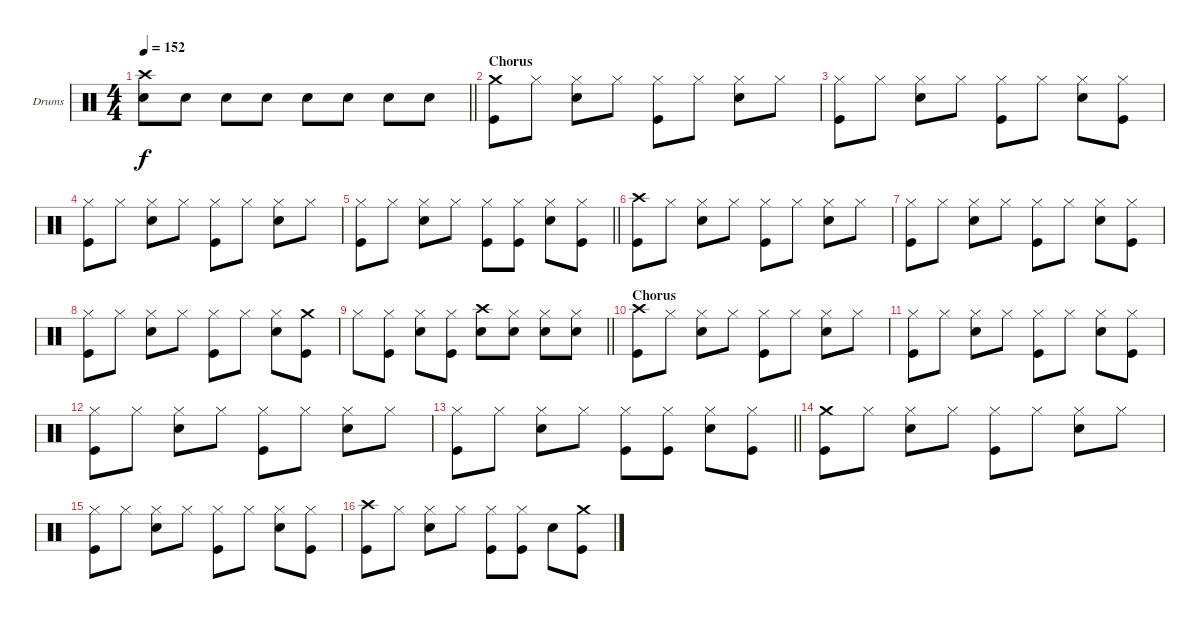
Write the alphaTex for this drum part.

\bracketExtendMode groupsimilarinstruments
\firstSystemTrackNameOrientation horizontal
\otherSystemsTrackNameOrientation horizontal
\track ("Drumkit" "Drums") {instrument percussion}
\staff {score}
\articulation defaults
\ts (4 4)
\tempo 152
\clef neutral
\barLineRight lightlight
\ks c
("Crash high (hit)" "Snare (hit) 2").8{dy f} "Snare (hit) 2".8 "Snare (hit) 2".8 "Snare (hit) 2".8 "Snare (hit) 2".8 "Snare (hit) 2".8 "Snare (hit) 2".8 "Snare (hit) 2".8 |
\section ("" "Chorus")
("Crash medium (hit)" "Kick (hit)").8 "Hi-Hat (closed)".8 ("Hi-Hat (closed)" "Snare (hit) 2").8 "Hi-Hat (closed)".8 ("Hi-Hat (closed)" "Kick (hit)").8 "Hi-Hat (closed)".8 ("Hi-Hat (closed)" "Snare (hit) 2").8 "Hi-Hat (closed)".8 |
("Hi-Hat (closed)" "Kick (hit)").8 "Hi-Hat (closed)".8 ("Hi-Hat (closed)" "Snare (hit) 2").8 "Hi-Hat (closed)".8 ("Hi-Hat (closed)" "Kick (hit)").8 "Hi-Hat (closed)".8 ("Hi-Hat (closed)" "Snare (hit) 2").8 ("Hi-Hat (closed)" "Kick (hit)").8 |
("Hi-Hat (closed)" "Kick (hit)").8 "Hi-Hat (closed)".8 ("Hi-Hat (closed)" "Snare (hit) 2").8 "Hi-Hat (closed)".8 ("Hi-Hat (closed)" "Kick (hit)").8 "Hi-Hat (closed)".8 ("Hi-Hat (closed)" "Snare (hit) 2").8 "Hi-Hat (closed)".8 |
\barLineRight lightlight
("Hi-Hat (closed)" "Kick (hit)").8 "Hi-Hat (closed)".8 ("Hi-Hat (closed)" "Snare (hit) 2").8 "Hi-Hat (closed)".8 ("Hi-Hat (closed)" "Kick (hit)").8 ("Hi-Hat (closed)" "Kick (hit)").8 ("Hi-Hat (closed)" "Snare (hit) 2").8 ("Hi-Hat (closed)" "Kick (hit)").8 |
("Crash high (hit)" "Kick (hit)").8 "Hi-Hat (closed)".8 ("Hi-Hat (closed)" "Snare (hit) 2").8 "Hi-Hat (closed)".8 ("Hi-Hat (closed)" "Kick (hit)").8 "Hi-Hat (closed)".8 ("Hi-Hat (closed)" "Snare (hit) 2").8 "Hi-Hat (closed)".8 |
("Hi-Hat (closed)" "Kick (hit)").8 "Hi-Hat (closed)".8 ("Hi-Hat (closed)" "Snare (hit) 2").8 "Hi-Hat (closed)".8 ("Hi-Hat (closed)" "Kick (hit)").8 "Hi-Hat (closed)".8 ("Hi-Hat (closed)" "Snare (hit) 2").8 ("Hi-Hat (closed)" "Kick (hit)").8 |
("Hi-Hat (closed)" "Kick (hit)").8 "Hi-Hat (closed)".8 ("Hi-Hat (closed)" "Snare (hit) 2").8 "Hi-Hat (closed)".8 ("Hi-Hat (closed)" "Kick (hit)").8 "Hi-Hat (closed)".8 ("Hi-Hat (closed)" "Snare (hit) 2").8 ("Crash medium (hit)" "Kick (hit)").8 |
\barLineRight lightlight "Hi-Hat (closed)".8
("Hi-Hat (closed)" "Kick (hit)").8 ("Hi-Hat (closed)" "Snare (hit) 2").8 ("Hi-Hat (closed)" "Kick (hit)").8 ("Crash high (hit)" "Snare (hit) 2").8 ("Hi-Hat (closed)" "Snare (hit) 2").8 ("Hi-Hat (closed)" "Snare (hit) 2").8 ("Hi-Hat (closed)" "Snare (hit) 2").8 |
\section ("" "Chorus")
("Crash high (hit)" "Kick (hit)").8 "Hi-Hat (closed)".8 ("Hi-Hat (closed)" "Snare (hit) 2").8 "Hi-Hat (closed)".8 ("Hi-Hat (closed)" "Kick (hit)").8 "Hi-Hat (closed)".8 ("Hi-Hat (closed)" "Snare (hit) 2").8 "Hi-Hat (closed)".8 |
("Hi-Hat (closed)" "Kick (hit)").8 "Hi-Hat (closed)".8 ("Hi-Hat (closed)" "Snare (hit) 2").8 "Hi-Hat (closed)".8 ("Hi-Hat (closed)" "Kick (hit)").8 "Hi-Hat (closed)".8 ("Hi-Hat (closed)" "Snare (hit) 2").8 ("Hi-Hat (closed)" "Kick (hit)").8 |
("Hi-Hat (closed)" "Kick (hit)").8 "Hi-Hat (closed)".8 ("Hi-Hat (closed)" "Snare (hit) 2").8 "Hi-Hat (closed)".8 ("Hi-Hat (closed)" "Kick (hit)").8 "Hi-Hat (closed)".8 ("Hi-Hat (closed)" "Snare (hit) 2").8 "Hi-Hat (closed)".8 |
\barLineRight lightlight
("Hi-Hat (closed)" "Kick (hit)").8 "Hi-Hat (closed)".8 ("Hi-Hat (closed)" "Snare (hit) 2").8 "Hi-Hat (closed)".8 ("Hi-Hat (closed)" "Kick (hit)").8 ("Hi-Hat (closed)" "Kick (hit)").8 ("Hi-Hat (closed)" "Snare (hit) 2").8 ("Hi-Hat (closed)" "Kick (hit)").8 |
("Crash medium (hit)" "Kick (hit)").8 "Hi-Hat (closed)".8 ("Hi-Hat (closed)" "Snare (hit) 2").8 "Hi-Hat (closed)".8 ("Hi-Hat (closed)" "Kick (hit)").8 "Hi-Hat (closed)".8 ("Hi-Hat (closed)" "Snare (hit) 2").8 "Hi-Hat (closed)".8 |
("Hi-Hat (closed)" "Kick (hit)").8 "Hi-Hat (closed)".8 ("Hi-Hat (closed)" "Snare (hit) 2").8 "Hi-Hat (closed)".8 ("Hi-Hat (closed)" "Kick (hit)").8 "Hi-Hat (closed)".8 ("Hi-Hat (closed)" "Snare (hit) 2").8 ("Hi-Hat (closed)" "Kick (hit)").8 |
("Crash high (hit)" "Kick (hit)").8 "Hi-Hat (closed)".8 ("Hi-Hat (closed)" "Snare (hit) 2").8 "Hi-Hat (closed)".8 ("Hi-Hat (closed)" "Kick (hit)").8 ("Hi-Hat (closed)" "Kick (hit)").8 "Snare (hit) 2".8 ("Crash medium (hit)" "Kick (hit)").8
